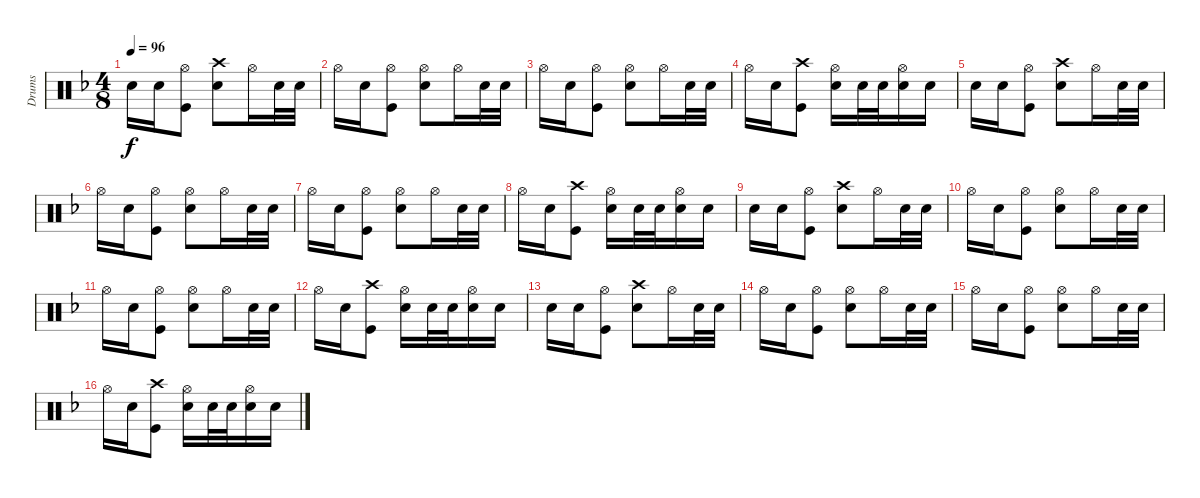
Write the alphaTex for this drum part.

\track ("Drums" "Drums") {instrument percussion}
\staff {score}
\articulation defaults
\ts (4 8)
\tempo 96
\clef neutral
\ks f "Snare (hit) 2".16{dy f} "Snare (hit) 2".16
("Hi-Hat (open)" "Kick (hit)").8 ("Crash high (hit)" "Snare (hit) 2").8 "Hi-Hat (open)".16 "Snare (hit) 2".32 "Snare (hit) 2".32 |
"Hi-Hat (open)".16 "Snare (hit) 2".16 ("Hi-Hat (open)" "Kick (hit)").8 ("Hi-Hat (open)" "Snare (hit) 2").8 "Hi-Hat (open)".16 "Snare (hit) 2".32 "Snare (hit) 2".32 |
"Hi-Hat (open)".16 "Snare (hit) 2".16 ("Hi-Hat (open)" "Kick (hit)").8 ("Hi-Hat (open)" "Snare (hit) 2").8 "Hi-Hat (open)".16 "Snare (hit) 2".32 "Snare (hit) 2".32 |
"Hi-Hat (open)".16 "Snare (hit) 2".16 ("Crash high (hit)" "Kick (hit)").8 ("Hi-Hat (open)" "Snare (hit) 2").16 "Snare (hit) 2".32 "Snare (hit) 2".32 ("Hi-Hat (open)" "Snare (hit) 2").16 "Snare (hit) 2".16 |
"Snare (hit) 2".16 "Snare (hit) 2".16 ("Hi-Hat (open)" "Kick (hit)").8 ("Crash high (hit)" "Snare (hit) 2").8 "Hi-Hat (open)".16 "Snare (hit) 2".32 "Snare (hit) 2".32 |
"Hi-Hat (open)".16 "Snare (hit) 2".16 ("Hi-Hat (open)" "Kick (hit)").8 ("Hi-Hat (open)" "Snare (hit) 2").8 "Hi-Hat (open)".16 "Snare (hit) 2".32 "Snare (hit) 2".32 |
"Hi-Hat (open)".16 "Snare (hit) 2".16 ("Hi-Hat (open)" "Kick (hit)").8 ("Hi-Hat (open)" "Snare (hit) 2").8 "Hi-Hat (open)".16 "Snare (hit) 2".32 "Snare (hit) 2".32 |
"Hi-Hat (open)".16 "Snare (hit) 2".16 ("Crash high (hit)" "Kick (hit)").8 ("Hi-Hat (open)" "Snare (hit) 2").16 "Snare (hit) 2".32 "Snare (hit) 2".32 ("Hi-Hat (open)" "Snare (hit) 2").16 "Snare (hit) 2".16 |
"Snare (hit) 2".16 "Snare (hit) 2".16 ("Hi-Hat (open)" "Kick (hit)").8 ("Crash high (hit)" "Snare (hit) 2").8 "Hi-Hat (open)".16 "Snare (hit) 2".32 "Snare (hit) 2".32 |
"Hi-Hat (open)".16 "Snare (hit) 2".16 ("Hi-Hat (open)" "Kick (hit)").8 ("Hi-Hat (open)" "Snare (hit) 2").8 "Hi-Hat (open)".16 "Snare (hit) 2".32 "Snare (hit) 2".32 |
"Hi-Hat (open)".16 "Snare (hit) 2".16 ("Hi-Hat (open)" "Kick (hit)").8 ("Hi-Hat (open)" "Snare (hit) 2").8 "Hi-Hat (open)".16 "Snare (hit) 2".32 "Snare (hit) 2".32 |
"Hi-Hat (open)".16 "Snare (hit) 2".16 ("Crash high (hit)" "Kick (hit)").8 ("Hi-Hat (open)" "Snare (hit) 2").16 "Snare (hit) 2".32 "Snare (hit) 2".32 ("Hi-Hat (open)" "Snare (hit) 2").16 "Snare (hit) 2".16 |
"Snare (hit) 2".16 "Snare (hit) 2".16 ("Hi-Hat (open)" "Kick (hit)").8 ("Crash high (hit)" "Snare (hit) 2").8 "Hi-Hat (open)".16 "Snare (hit) 2".32 "Snare (hit) 2".32 |
"Hi-Hat (open)".16 "Snare (hit) 2".16 ("Hi-Hat (open)" "Kick (hit)").8 ("Hi-Hat (open)" "Snare (hit) 2").8 "Hi-Hat (open)".16 "Snare (hit) 2".32 "Snare (hit) 2".32 |
"Hi-Hat (open)".16 "Snare (hit) 2".16 ("Hi-Hat (open)" "Kick (hit)").8 ("Hi-Hat (open)" "Snare (hit) 2").8 "Hi-Hat (open)".16 "Snare (hit) 2".32 "Snare (hit) 2".32 |
"Hi-Hat (open)".16 "Snare (hit) 2".16 ("Crash high (hit)" "Kick (hit)").8 ("Hi-Hat (open)" "Snare (hit) 2").16 "Snare (hit) 2".32 "Snare (hit) 2".32 ("Hi-Hat (open)" "Snare (hit) 2").16 "Snare (hit) 2".16
